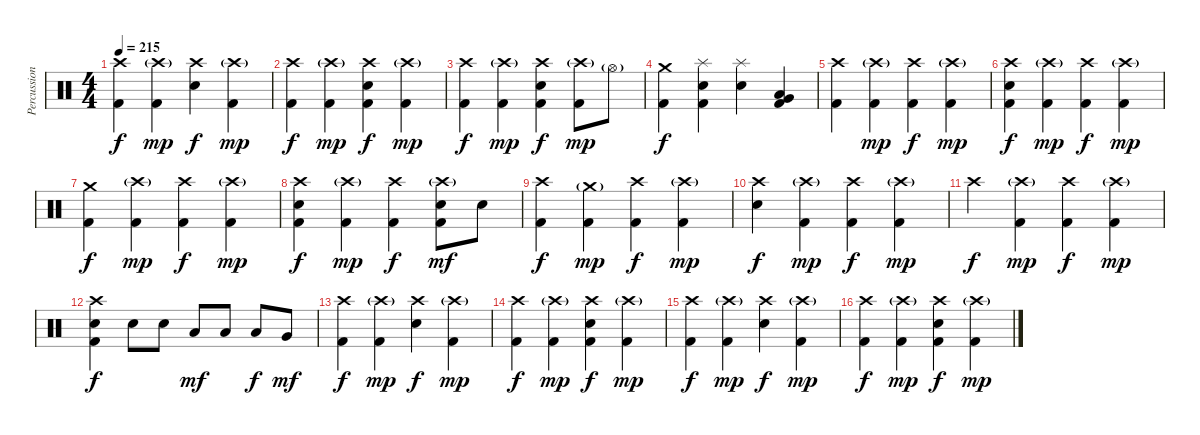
\track ("Percussion" "Percussion") {instrument percussion}
\staff {score}
\articulation defaults
\ts (4 4)
\tempo 215
\clef neutral
\ks c
("Crash high (hit)" "Kick (hit) 2").4{dy f} ("Crash high (hit)"{g} "Kick (hit) 2").4{dy mp} ("Crash high (hit)" "Electric Snare (hit)").4{dy f} ("Crash high (hit)"{g} "Kick (hit) 2").4{dy mp} |
("Crash high (hit)" "Kick (hit) 2").4{dy f} ("Crash high (hit)"{g} "Kick (hit) 2").4{dy mp} ("Crash high (hit)" "Electric Snare (hit)" "Kick (hit) 2").4{dy f} ("Crash high (hit)"{g} "Kick (hit) 2").4{dy mp} |
("Crash high (hit)" "Kick (hit) 2").4{dy f} ("Crash high (hit)"{g} "Kick (hit) 2").4{dy mp} ("Crash high (hit)" "Electric Snare (hit)" "Kick (hit) 2").4{dy f} ("Crash high (hit)"{g} "Kick (hit) 2").8{dy mp} "Hi-Hat (open)"{g}.8 |
("Crash medium (hit)" "Kick (hit) 2").4{dy f} ("Splash (hit)" "Electric Snare (hit)" "Kick (hit) 2").4 ("Splash (hit)" "Electric Snare (hit)").4 ("Very Low Tom (hit)" "Low Tom (hit)" "Kick (hit) 2").4 |
("Crash high (hit)" "Kick (hit) 2").4 ("Crash high (hit)"{g} "Kick (hit) 2").4{dy mp} ("Crash high (hit)" "Kick (hit) 2").4{dy f} ("Crash high (hit)"{g} "Kick (hit) 2").4{dy mp} |
("Crash high (hit)" "Electric Snare (hit)" "Kick (hit) 2").4{dy f} ("Crash high (hit)"{g} "Kick (hit) 2").4{dy mp} ("Crash high (hit)" "Kick (hit) 2").4{dy f} ("Crash high (hit)"{g} "Kick (hit) 2").4{dy mp} |
("Crash medium (hit)" "Kick (hit) 2").4{dy f} ("Crash high (hit)"{g} "Kick (hit) 2").4{dy mp} ("Crash high (hit)" "Kick (hit) 2").4{dy f} ("Crash high (hit)"{g} "Kick (hit) 2").4{dy mp} |
("Crash high (hit)" "Electric Snare (hit)" "Kick (hit) 2").4{dy f} ("Crash high (hit)"{g} "Kick (hit) 2").4{dy mp} ("Crash high (hit)" "Kick (hit) 2").4{dy f} ("Crash high (hit)"{g} "Electric Snare (hit)" "Kick (hit) 2").8{dy mf} "Electric Snare (hit)".8 |
("Crash high (hit)" "Kick (hit) 2").4{dy f} ("Crash medium (hit)"{g} "Kick (hit) 2").4{dy mp} ("Crash high (hit)" "Kick (hit) 2").4{dy f} ("Crash high (hit)"{g} "Kick (hit) 2").4{dy mp} |
("Crash high (hit)" "Electric Snare (hit)").4{dy f} ("Crash high (hit)"{g} "Kick (hit) 2").4{dy mp} ("Crash high (hit)" "Kick (hit) 2").4{dy f} ("Crash high (hit)"{g} "Kick (hit) 2").4{dy mp} |
"Crash high (hit)".4{dy f} ("Crash high (hit)"{g} "Kick (hit) 2").4{dy mp} ("Crash high (hit)" "Kick (hit) 2").4{dy f} ("Crash high (hit)"{g} "Kick (hit) 2").4{dy mp} |
("Crash high (hit)" "Electric Snare (hit)" "Kick (hit) 2").4{dy f} "Electric Snare (hit)".8 "Electric Snare (hit)".8 "Low Tom (hit)".8{dy mf} "Low Tom (hit)".8 "Low Tom (hit)".8{dy f} "Very Low Tom (hit)".8{dy mf} |
("Crash high (hit)" "Kick (hit) 2").4{dy f} ("Crash high (hit)"{g} "Kick (hit) 2").4{dy mp} ("Crash high (hit)" "Electric Snare (hit)").4{dy f} ("Crash high (hit)"{g} "Kick (hit) 2").4{dy mp} |
("Crash high (hit)" "Kick (hit) 2").4{dy f} ("Crash high (hit)"{g} "Kick (hit) 2").4{dy mp} ("Crash high (hit)" "Electric Snare (hit)" "Kick (hit) 2").4{dy f} ("Crash high (hit)"{g} "Kick (hit) 2").4{dy mp} |
("Crash high (hit)" "Kick (hit) 2").4{dy f} ("Crash high (hit)"{g} "Kick (hit) 2").4{dy mp} ("Crash high (hit)" "Electric Snare (hit)").4{dy f} ("Crash high (hit)"{g} "Kick (hit) 2").4{dy mp} |
("Crash high (hit)" "Kick (hit) 2").4{dy f} ("Crash high (hit)"{g} "Kick (hit) 2").4{dy mp} ("Crash high (hit)" "Electric Snare (hit)" "Kick (hit) 2").4{dy f} ("Crash high (hit)"{g} "Kick (hit) 2").4{dy mp}
